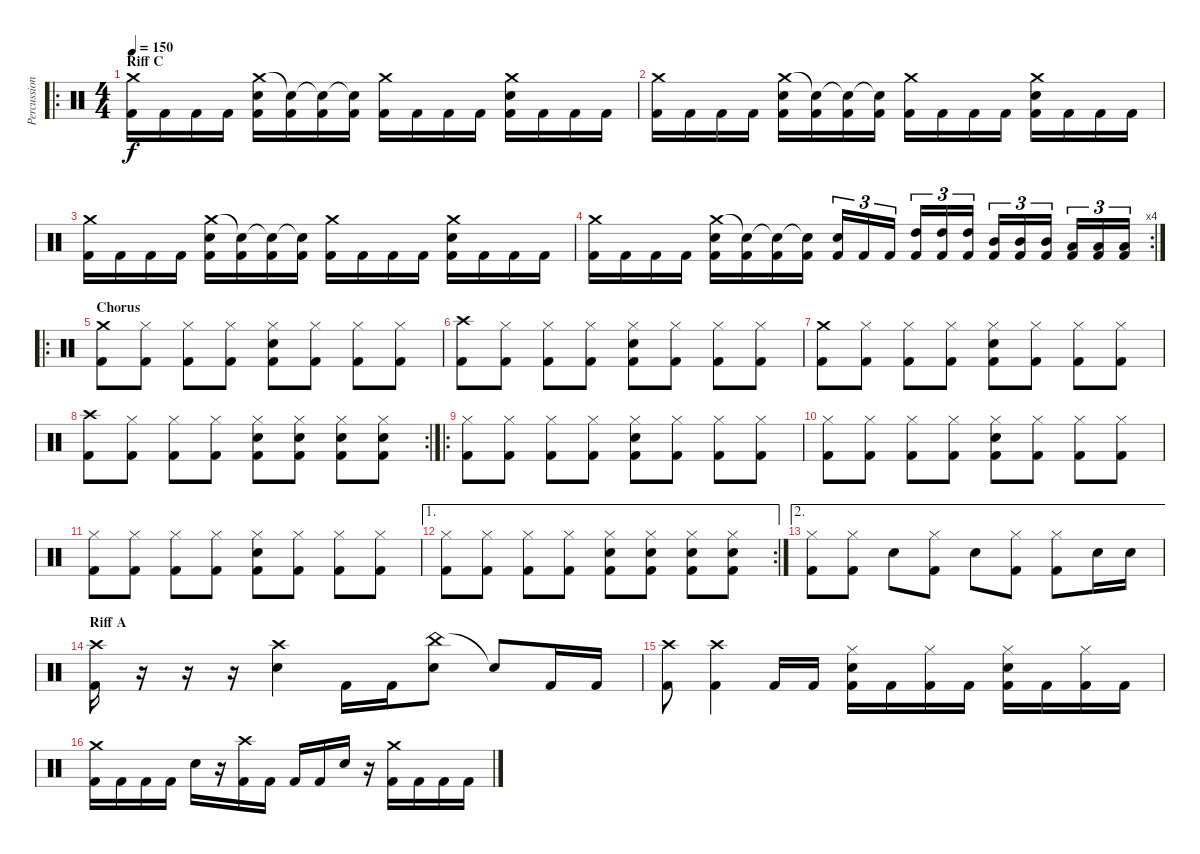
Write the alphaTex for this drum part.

\track ("Percussions" "Percussion") {instrument percussion}
\staff {score}
\articulation defaults
\ro
\ts (4 4)
\section ("" "Riff C")
\tempo 150
\clef neutral
\ks c
("Crash medium (hit)" "Kick (hit) 2").16{dy f} "Kick (hit) 2".16 "Kick (hit) 2".16 "Kick (hit) 2".16 ("Crash medium (hit)" "Snare (hit) 2" "Kick (hit) 2").16 ("Snare (hit)"{t} "Kick (hit) 2").16 ("Snare (hit)"{t} "Kick (hit) 2").16 ("Snare (hit)"{t} "Kick (hit) 2").16 ("Crash medium (hit)" "Kick (hit) 2").16 "Kick (hit) 2".16 "Kick (hit) 2".16 "Kick (hit) 2".16 ("Crash medium (hit)" "Snare (hit) 2" "Kick (hit) 2").16 "Kick (hit) 2".16 "Kick (hit) 2".16 "Kick (hit) 2".16 |
("Crash medium (hit)" "Kick (hit) 2").16 "Kick (hit) 2".16 "Kick (hit) 2".16 "Kick (hit) 2".16 ("Crash medium (hit)" "Snare (hit) 2" "Kick (hit) 2").16 ("Snare (hit)"{t} "Kick (hit) 2").16 ("Snare (hit)"{t} "Kick (hit) 2").16 ("Snare (hit)"{t} "Kick (hit) 2").16 ("Crash medium (hit)" "Kick (hit) 2").16 "Kick (hit) 2".16 "Kick (hit) 2".16 "Kick (hit) 2".16 ("Crash medium (hit)" "Snare (hit) 2" "Kick (hit) 2").16 "Kick (hit) 2".16 "Kick (hit) 2".16 "Kick (hit) 2".16 |
("Crash medium (hit)" "Kick (hit) 2").16 "Kick (hit) 2".16 "Kick (hit) 2".16 "Kick (hit) 2".16 ("Crash medium (hit)" "Snare (hit) 2" "Kick (hit) 2").16 ("Snare (hit)"{t} "Kick (hit) 2").16 ("Snare (hit)"{t} "Kick (hit) 2").16 ("Snare (hit)"{t} "Kick (hit) 2").16 ("Crash medium (hit)" "Kick (hit) 2").16 "Kick (hit) 2".16 "Kick (hit) 2".16 "Kick (hit) 2".16 ("Crash medium (hit)" "Snare (hit) 2" "Kick (hit) 2").16 "Kick (hit) 2".16 "Kick (hit) 2".16 "Kick (hit) 2".16 |
\rc 4
("Crash medium (hit)" "Kick (hit) 2").16 "Kick (hit) 2".16 "Kick (hit) 2".16 "Kick (hit) 2".16 ("Crash medium (hit)" "Snare (hit) 2" "Kick (hit) 2").16 ("Snare (hit)"{t} "Kick (hit) 2").16 ("Snare (hit)"{t} "Kick (hit) 2").16 ("Snare (hit)"{t} "Kick (hit) 2").16 ("Snare (hit) 2" "Kick (hit) 2").16{tu (3 2)} "Kick (hit) 2".16{tu (3 2)} "Kick (hit) 2".16{tu (3 2)} ("High Tom (hit)" "Kick (hit) 2").16{tu (3 2)} ("High Tom (hit)" "Kick (hit) 2").16{tu (3 2)} ("High Tom (hit)" "Kick (hit) 2").16{tu (3 2)} ("Mid Tom (hit)" "Kick (hit) 2").16{tu (3 2)} ("Mid Tom (hit)" "Kick (hit) 2").16{tu (3 2)} ("Mid Tom (hit)" "Kick (hit) 2").16{tu (3 2)} ("Low Tom (hit)" "Kick (hit) 2").16{tu (3 2)} ("Low Tom (hit)" "Kick (hit) 2").16{tu (3 2)} ("Low Tom (hit)" "Kick (hit) 2").16{tu (3 2)} |
\ro
\section ("" "Chorus")
("Crash medium (hit)" "Kick (hit) 2").8 ("Hi-Hat (closed)" "Kick (hit) 2").8 ("Hi-Hat (closed)" "Kick (hit) 2").8 ("Hi-Hat (closed)" "Kick (hit) 2").8 ("Hi-Hat (closed)" "Snare (hit) 2" "Kick (hit) 2").8 ("Hi-Hat (closed)" "Kick (hit) 2").8 ("Hi-Hat (closed)" "Kick (hit) 2").8 ("Hi-Hat (closed)" "Kick (hit) 2").8 |
("Crash high (hit)" "Kick (hit) 2").8 ("Hi-Hat (closed)" "Kick (hit) 2").8 ("Hi-Hat (closed)" "Kick (hit) 2").8 ("Hi-Hat (closed)" "Kick (hit) 2").8 ("Hi-Hat (closed)" "Snare (hit) 2" "Kick (hit) 2").8 ("Hi-Hat (closed)" "Kick (hit) 2").8 ("Hi-Hat (closed)" "Kick (hit) 2").8 ("Hi-Hat (closed)" "Kick (hit) 2").8 |
("Crash medium (hit)" "Kick (hit) 2").8 ("Hi-Hat (closed)" "Kick (hit) 2").8 ("Hi-Hat (closed)" "Kick (hit) 2").8 ("Hi-Hat (closed)" "Kick (hit) 2").8 ("Hi-Hat (closed)" "Snare (hit) 2" "Kick (hit) 2").8 ("Hi-Hat (closed)" "Kick (hit) 2").8 ("Hi-Hat (closed)" "Kick (hit) 2").8 ("Hi-Hat (closed)" "Kick (hit) 2").8 |
\rc 2
("Crash high (hit)" "Kick (hit) 2").8 ("Hi-Hat (closed)" "Kick (hit) 2").8 ("Hi-Hat (closed)" "Kick (hit) 2").8 ("Hi-Hat (closed)" "Kick (hit) 2").8 ("Hi-Hat (closed)" "Snare (hit) 2" "Kick (hit) 2").8 ("Hi-Hat (closed)" "Snare (hit) 2" "Kick (hit) 2").8 ("Hi-Hat (closed)" "Snare (hit) 2" "Kick (hit) 2").8 ("Hi-Hat (closed)" "Snare (hit) 2" "Kick (hit) 2").8 |
\ro
("Hi-Hat (closed)" "Kick (hit) 2").8 ("Hi-Hat (closed)" "Kick (hit) 2").8 ("Hi-Hat (closed)" "Kick (hit) 2").8 ("Hi-Hat (closed)" "Kick (hit) 2").8 ("Hi-Hat (closed)" "Snare (hit) 2" "Kick (hit) 2").8 ("Hi-Hat (closed)" "Kick (hit) 2").8 ("Hi-Hat (closed)" "Kick (hit) 2").8 ("Hi-Hat (closed)" "Kick (hit) 2").8 |
("Hi-Hat (closed)" "Kick (hit) 2").8 ("Hi-Hat (closed)" "Kick (hit) 2").8 ("Hi-Hat (closed)" "Kick (hit) 2").8 ("Hi-Hat (closed)" "Kick (hit) 2").8 ("Hi-Hat (closed)" "Snare (hit) 2" "Kick (hit) 2").8 ("Hi-Hat (closed)" "Kick (hit) 2").8 ("Hi-Hat (closed)" "Kick (hit) 2").8 ("Hi-Hat (closed)" "Kick (hit) 2").8 |
("Hi-Hat (closed)" "Kick (hit) 2").8 ("Hi-Hat (closed)" "Kick (hit) 2").8 ("Hi-Hat (closed)" "Kick (hit) 2").8 ("Hi-Hat (closed)" "Kick (hit) 2").8 ("Hi-Hat (closed)" "Snare (hit) 2" "Kick (hit) 2").8 ("Hi-Hat (closed)" "Kick (hit) 2").8 ("Hi-Hat (closed)" "Kick (hit) 2").8 ("Hi-Hat (closed)" "Kick (hit) 2").8 |
\ae 1
\rc 2
("Hi-Hat (closed)" "Kick (hit) 2").8 ("Hi-Hat (closed)" "Kick (hit) 2").8 ("Hi-Hat (closed)" "Kick (hit) 2").8 ("Hi-Hat (closed)" "Kick (hit) 2").8 ("Hi-Hat (closed)" "Snare (hit) 2" "Kick (hit) 2").8 ("Hi-Hat (closed)" "Snare (hit) 2" "Kick (hit) 2").8 ("Hi-Hat (closed)" "Snare (hit) 2" "Kick (hit) 2").8 ("Hi-Hat (closed)" "Snare (hit) 2" "Kick (hit) 2").8 |
\ae 2
("Hi-Hat (closed)" "Kick (hit) 2").8 ("Hi-Hat (closed)" "Kick (hit) 2").8 "Snare (hit) 2".8 ("Hi-Hat (closed)" "Kick (hit) 2").8 "Snare (hit) 2".8 ("Hi-Hat (closed)" "Kick (hit) 2").8 ("Hi-Hat (closed)" "Kick (hit) 2").8 "Snare (hit) 2".16 "Snare (hit) 2".16 |
\section ("" "Riff A")
("Crash high (hit)" "Kick (hit) 2").16 r.16 r.16 r.16 ("Crash high (hit)" "Snare (hit) 2").4 "Kick (hit) 2".16 "Kick (hit) 2".16 ("China (hit)" "Snare (hit) 2").8 "Snare (hit)"{t}.8 "Kick (hit) 2".16 "Kick (hit) 2".16 |
("Crash high (hit)" "Kick (hit) 2").8 ("Crash high (hit)" "Kick (hit) 2").4 "Kick (hit) 2".16 "Kick (hit) 2".16 ("Hi-Hat (closed)" "Snare (hit) 2" "Kick (hit) 2").16 "Kick (hit) 2".16 ("Hi-Hat (closed)" "Kick (hit) 2").16 "Kick (hit) 2".16 ("Hi-Hat (closed)" "Snare (hit) 2" "Kick (hit) 2").16 "Kick (hit) 2".16 ("Hi-Hat (closed)" "Kick (hit) 2").16 "Kick (hit) 2".16 |
("Crash medium (hit)" "Kick (hit) 2").16 "Kick (hit) 2".16 "Kick (hit) 2".16 "Kick (hit) 2".16 "Snare (hit) 2".16 r.16 ("Crash high (hit)" "Kick (hit) 2").16 "Kick (hit) 2".16 "Kick (hit) 2".16 "Kick (hit) 2".16 "Snare (hit) 2".16 r.16 ("Crash medium (hit)" "Kick (hit) 2").16 "Kick (hit) 2".16 "Kick (hit) 2".16 "Kick (hit) 2".16
